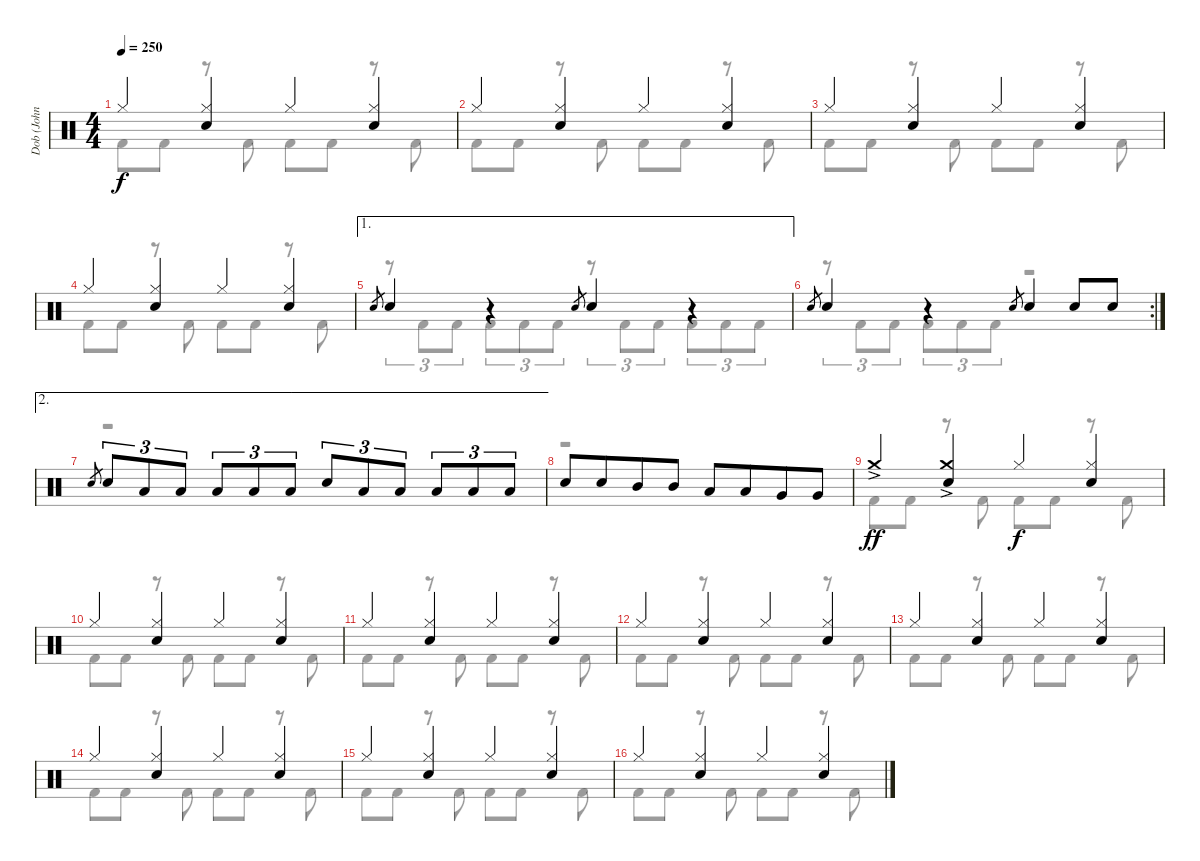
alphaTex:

\track ("Dob (John Macaluso)" "Dob (John ") {instrument percussion}
\staff {score}
\articulation defaults
\voice
\ts (4 4)
\tempo 250
\clef neutral
\ks c "Hi-Hat (closed)".4{dy f}
("Hi-Hat (closed)" "Electric Snare (hit)").4 "Hi-Hat (closed)".4 ("Hi-Hat (closed)" "Electric Snare (hit)").4 |
"Hi-Hat (closed)".4 ("Hi-Hat (closed)" "Electric Snare (hit)").4 "Hi-Hat (closed)".4 ("Hi-Hat (closed)" "Electric Snare (hit)").4 |
"Hi-Hat (closed)".4 ("Hi-Hat (closed)" "Electric Snare (hit)").4 "Hi-Hat (closed)".4 ("Hi-Hat (closed)" "Electric Snare (hit)").4 |
"Hi-Hat (closed)".4 ("Hi-Hat (closed)" "Electric Snare (hit)").4 "Hi-Hat (closed)".4 ("Hi-Hat (closed)" "Electric Snare (hit)").4 |
\ae 1 "Electric Snare (hit)".8{gr} "Electric Snare (hit)".4
r.4 "Electric Snare (hit)".8{gr} "Electric Snare (hit)".4 r.4 |
\rc 2 "Electric Snare (hit)".8{gr} "Electric Snare (hit)".4
r.4 "Electric Snare (hit)".8{gr} "Electric Snare (hit)".4 "Electric Snare (hit)".8 "Electric Snare (hit)".8 |
\ae 2 "Electric Snare (hit)".8{gr} "Electric Snare (hit)".8{tu (3 2)} "Low Tom (hit)".8{tu (3 2)} "Low Tom (hit)".8{tu (3 2)} "Low Tom (hit)".8{tu (3 2)} "Low Tom (hit)".8{tu (3 2)} "Low Tom (hit)".8{tu (3 2)} "Electric Snare (hit)".8{tu (3 2)} "Low Tom (hit)".8{tu (3 2)} "Low Tom (hit)".8{tu (3 2)} "Low Tom (hit)".8{tu (3 2)} "Low Tom (hit)".8{tu (3 2)} "Low Tom (hit)".8{tu (3 2)}
|
"Electric Snare (hit)".8 "Electric Snare (hit)".8{beam merge} "Mid Tom (hit)".8 "Mid Tom (hit)".8 "Low Tom (hit)".8 "Low Tom (hit)".8{beam merge} "Very Low Tom (hit)".8 "Very Low Tom (hit)".8 |
"Crash medium (hit)"{ac}.4{dy ff} ("Crash medium (hit)"{ac} "Electric Snare (hit)").4 "Hi-Hat (closed)".4{dy f} ("Hi-Hat (closed)" "Electric Snare (hit)").4 |
"Hi-Hat (closed)".4 ("Hi-Hat (closed)" "Electric Snare (hit)").4 "Hi-Hat (closed)".4 ("Hi-Hat (closed)" "Electric Snare (hit)").4 |
"Hi-Hat (closed)".4 ("Hi-Hat (closed)" "Electric Snare (hit)").4 "Hi-Hat (closed)".4 ("Hi-Hat (closed)" "Electric Snare (hit)").4 |
"Hi-Hat (closed)".4 ("Hi-Hat (closed)" "Electric Snare (hit)").4 "Hi-Hat (closed)".4 ("Hi-Hat (closed)" "Electric Snare (hit)").4 |
"Hi-Hat (closed)".4 ("Hi-Hat (closed)" "Electric Snare (hit)").4 "Hi-Hat (closed)".4 ("Hi-Hat (closed)" "Electric Snare (hit)").4 |
"Hi-Hat (closed)".4 ("Hi-Hat (closed)" "Electric Snare (hit)").4 "Hi-Hat (closed)".4 ("Hi-Hat (closed)" "Electric Snare (hit)").4 |
"Hi-Hat (closed)".4 ("Hi-Hat (closed)" "Electric Snare (hit)").4 "Hi-Hat (closed)".4 ("Hi-Hat (closed)" "Electric Snare (hit)").4 |
"Hi-Hat (closed)".4 ("Hi-Hat (closed)" "Electric Snare (hit)").4 "Hi-Hat (closed)".4 ("Hi-Hat (closed)" "Electric Snare (hit)").4
\voice
\clef neutral
\ottava regular
\simile none
\ks c "Kick (hit) 2".8{dy f} "Kick (hit) 2".8
r.8 "Kick (hit) 2".8 "Kick (hit) 2".8 "Kick (hit) 2".8 r.8 "Kick (hit) 2".8 |
"Kick (hit) 2".8 "Kick (hit) 2".8 r.8 "Kick (hit) 2".8 "Kick (hit) 2".8 "Kick (hit) 2".8 r.8 "Kick (hit) 2".8 |
"Kick (hit) 2".8 "Kick (hit) 2".8 r.8 "Kick (hit) 2".8 "Kick (hit) 2".8 "Kick (hit) 2".8 r.8 "Kick (hit) 2".8 |
"Kick (hit) 2".8 "Kick (hit) 2".8 r.8 "Kick (hit) 2".8 "Kick (hit) 2".8 "Kick (hit) 2".8 r.8 "Kick (hit) 2".8 |
r.8{tu (3 2)} "Kick (hit) 2".8{tu (3 2)} "Kick (hit) 2".8{tu (3 2)} "Kick (hit) 2".8{tu (3 2)} "Kick (hit) 2".8{tu (3 2)} "Kick (hit) 2".8{tu (3 2)} r.8{tu (3 2)} "Kick (hit) 2".8{tu (3 2)} "Kick (hit) 2".8{tu (3 2)} "Kick (hit) 2".8{tu (3 2)} "Kick (hit) 2".8{tu (3 2)} "Kick (hit) 2".8{tu (3 2)} |
r.8{tu (3 2)} "Kick (hit) 2".8{tu (3 2)} "Kick (hit) 2".8{tu (3 2)} "Kick (hit) 2".8{tu (3 2)} "Kick (hit) 2".8{tu (3 2)} "Kick (hit) 2".8{tu (3 2)} r.2 |
r.1 |
r.1 |
"Kick (hit) 2".8 "Kick (hit) 2".8 r.8 "Kick (hit) 2".8 "Kick (hit) 2".8 "Kick (hit) 2".8 r.8 "Kick (hit) 2".8 |
"Kick (hit) 2".8 "Kick (hit) 2".8 r.8 "Kick (hit) 2".8 "Kick (hit) 2".8 "Kick (hit) 2".8 r.8 "Kick (hit) 2".8 |
"Kick (hit) 2".8 "Kick (hit) 2".8 r.8 "Kick (hit) 2".8 "Kick (hit) 2".8 "Kick (hit) 2".8 r.8 "Kick (hit) 2".8 |
"Kick (hit) 2".8 "Kick (hit) 2".8 r.8 "Kick (hit) 2".8 "Kick (hit) 2".8 "Kick (hit) 2".8 r.8 "Kick (hit) 2".8 |
"Kick (hit) 2".8 "Kick (hit) 2".8 r.8 "Kick (hit) 2".8 "Kick (hit) 2".8 "Kick (hit) 2".8 r.8 "Kick (hit) 2".8 |
"Kick (hit) 2".8 "Kick (hit) 2".8 r.8 "Kick (hit) 2".8 "Kick (hit) 2".8 "Kick (hit) 2".8 r.8 "Kick (hit) 2".8 |
"Kick (hit) 2".8 "Kick (hit) 2".8 r.8 "Kick (hit) 2".8 "Kick (hit) 2".8 "Kick (hit) 2".8 r.8 "Kick (hit) 2".8 |
"Kick (hit) 2".8 "Kick (hit) 2".8 r.8 "Kick (hit) 2".8 "Kick (hit) 2".8 "Kick (hit) 2".8 r.8 "Kick (hit) 2".8
